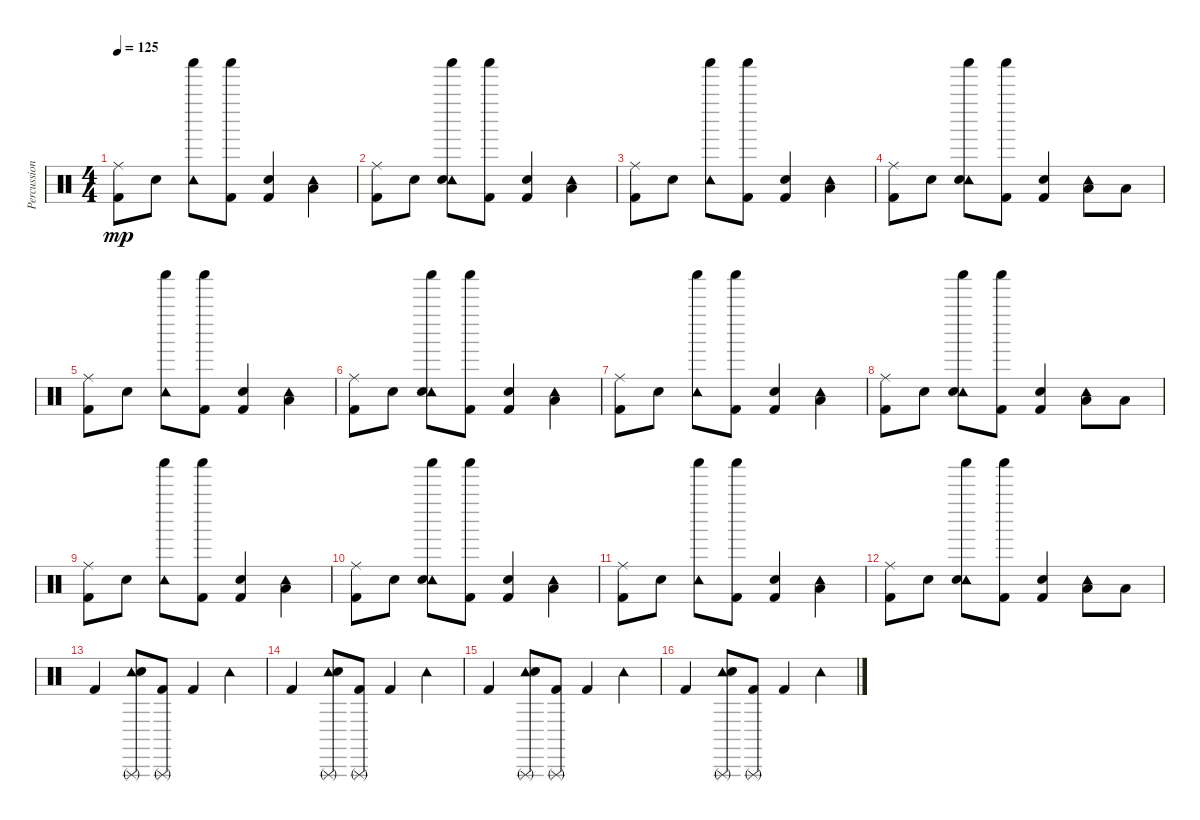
\track ("Percussion" "Percussion") {instrument percussion}
\staff {score}
\articulation defaults
\ts (4 4)
\tempo 125
\clef neutral
\ks c
("Ride (middle)" "Kick (hit) 2").8{dy mp} "Snare (hit) 2".8 ("Shaker (hit)" "Tambourine (hit)").8 ("Shaker (hit)" "Kick (hit) 2").8 ("Kick (hit) 2" "Snare (hit) 2").4 ("Tambourine (hit)" "Low Tom (hit)").4 |
("Ride (middle)" "Kick (hit) 2").8 "Snare (hit) 2".8 ("Shaker (hit)" "Tambourine (hit)" "Snare (hit) 2").8 ("Shaker (hit)" "Kick (hit) 2").8 ("Kick (hit) 2" "Snare (hit) 2").4 ("Tambourine (hit)" "Low Tom (hit)").4 |
("Ride (middle)" "Kick (hit) 2").8 "Snare (hit) 2".8 ("Shaker (hit)" "Tambourine (hit)").8 ("Shaker (hit)" "Kick (hit) 2").8 ("Kick (hit) 2" "Snare (hit) 2").4 ("Tambourine (hit)" "Low Tom (hit)").4 |
("Ride (middle)" "Kick (hit) 2").8 "Snare (hit) 2".8 ("Shaker (hit)" "Tambourine (hit)" "Snare (hit) 2").8 ("Shaker (hit)" "Kick (hit) 2").8 ("Kick (hit) 2" "Snare (hit) 2").4 ("Tambourine (hit)" "Low Tom (hit)").8 "Low Tom (hit)".8 |
("Ride (middle)" "Kick (hit) 2").8 "Snare (hit) 2".8 ("Shaker (hit)" "Tambourine (hit)").8 ("Shaker (hit)" "Kick (hit) 2").8 ("Kick (hit) 2" "Snare (hit) 2").4 ("Tambourine (hit)" "Low Tom (hit)").4 |
("Ride (middle)" "Kick (hit) 2").8 "Snare (hit) 2".8 ("Shaker (hit)" "Tambourine (hit)" "Snare (hit) 2").8 ("Shaker (hit)" "Kick (hit) 2").8 ("Kick (hit) 2" "Snare (hit) 2").4 ("Tambourine (hit)" "Low Tom (hit)").4 |
("Ride (middle)" "Kick (hit) 2").8 "Snare (hit) 2".8 ("Shaker (hit)" "Tambourine (hit)").8 ("Shaker (hit)" "Kick (hit) 2").8 ("Kick (hit) 2" "Snare (hit) 2").4 ("Tambourine (hit)" "Low Tom (hit)").4 |
("Ride (middle)" "Kick (hit) 2").8 "Snare (hit) 2".8 ("Shaker (hit)" "Tambourine (hit)" "Snare (hit) 2").8 ("Shaker (hit)" "Kick (hit) 2").8 ("Kick (hit) 2" "Snare (hit) 2").4 ("Tambourine (hit)" "Low Tom (hit)").8 "Low Tom (hit)".8 |
("Ride (middle)" "Kick (hit) 2").8 "Snare (hit) 2".8 ("Shaker (hit)" "Tambourine (hit)").8 ("Shaker (hit)" "Kick (hit) 2").8 ("Kick (hit) 2" "Snare (hit) 2").4 ("Tambourine (hit)" "Low Tom (hit)").4 |
("Ride (middle)" "Kick (hit) 2").8 "Snare (hit) 2".8 ("Shaker (hit)" "Tambourine (hit)" "Snare (hit) 2").8 ("Shaker (hit)" "Kick (hit) 2").8 ("Kick (hit) 2" "Snare (hit) 2").4 ("Tambourine (hit)" "Low Tom (hit)").4 |
("Ride (middle)" "Kick (hit) 2").8 "Snare (hit) 2".8 ("Shaker (hit)" "Tambourine (hit)").8 ("Shaker (hit)" "Kick (hit) 2").8 ("Kick (hit) 2" "Snare (hit) 2").4 ("Tambourine (hit)" "Low Tom (hit)").4 |
("Ride (middle)" "Kick (hit) 2").8 "Snare (hit) 2".8 ("Shaker (hit)" "Tambourine (hit)" "Snare (hit) 2").8 ("Shaker (hit)" "Kick (hit) 2").8 ("Kick (hit) 2" "Snare (hit) 2").4 ("Tambourine (hit)" "Low Tom (hit)").8 "Low Tom (hit)".8 |
"Kick (hit) 2".4 ("Triangle (rnute)" "Tambourine (hit)" "Snare (hit) 2").8 ("Triangle (rnute)" "Kick (hit) 2").8 "Kick (hit) 2".4 "Tambourine (hit)".4 |
"Kick (hit) 2".4 ("Triangle (rnute)" "Tambourine (hit)" "Snare (hit) 2").8 ("Triangle (rnute)" "Kick (hit) 2").8 "Kick (hit) 2".4 "Tambourine (hit)".4 |
"Kick (hit) 2".4 ("Triangle (rnute)" "Tambourine (hit)" "Snare (hit) 2").8 ("Triangle (rnute)" "Kick (hit) 2").8 "Kick (hit) 2".4 "Tambourine (hit)".4 |
"Kick (hit) 2".4 ("Triangle (rnute)" "Tambourine (hit)" "Snare (hit) 2").8 ("Triangle (rnute)" "Kick (hit) 2").8 "Kick (hit) 2".4 "Tambourine (hit)".4
